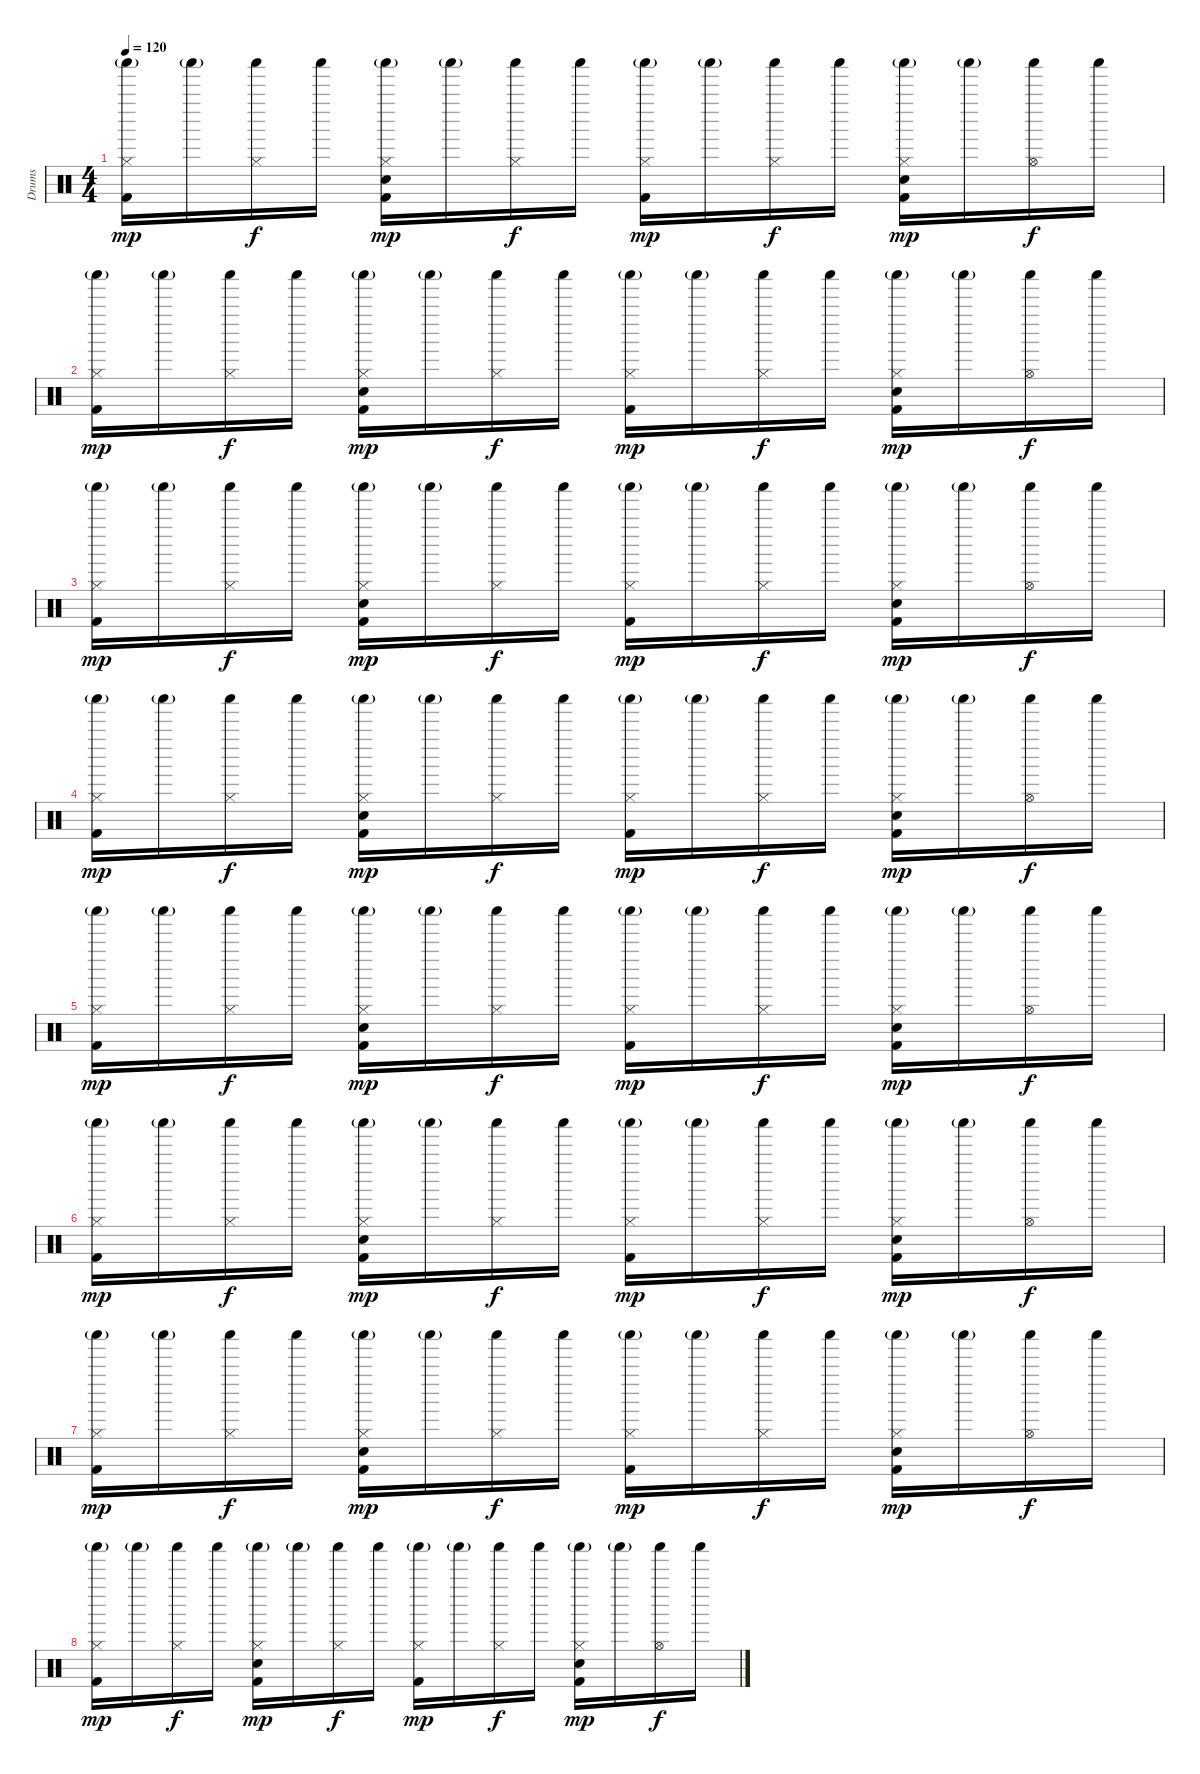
\track ("Drums" "Drums") {instrument percussion}
\staff {score}
\articulation defaults
\ts (4 4)
\tempo 120
\clef neutral
\ks c
("Hi-Hat (closed)" "Shaker (hit)"{g} "Kick (hit) 2").16{dy mp} "Shaker (hit)"{g}.16 ("Hi-Hat (closed)" "Shaker (hit)").16{dy f} "Shaker (hit)".16 ("Hi-Hat (closed)" "Shaker (hit)"{g} "Electric Snare (hit)" "Kick (hit) 2").16{dy mp} "Shaker (hit)"{g}.16 ("Hi-Hat (closed)" "Shaker (hit)").16{dy f} "Shaker (hit)".16 ("Hi-Hat (closed)" "Shaker (hit)"{g} "Kick (hit) 2").16{dy mp} "Shaker (hit)"{g}.16 ("Hi-Hat (closed)" "Shaker (hit)").16{dy f} "Shaker (hit)".16 ("Hi-Hat (closed)" "Shaker (hit)"{g} "Electric Snare (hit)" "Kick (hit) 2").16{dy mp} "Shaker (hit)"{g}.16 ("Hi-Hat (open)" "Shaker (hit)").16{dy f} "Shaker (hit)".16 |
("Hi-Hat (closed)" "Shaker (hit)"{g} "Kick (hit) 2").16{dy mp} "Shaker (hit)"{g}.16 ("Hi-Hat (closed)" "Shaker (hit)").16{dy f} "Shaker (hit)".16 ("Hi-Hat (closed)" "Shaker (hit)"{g} "Electric Snare (hit)" "Kick (hit) 2").16{dy mp} "Shaker (hit)"{g}.16 ("Hi-Hat (closed)" "Shaker (hit)").16{dy f} "Shaker (hit)".16 ("Hi-Hat (closed)" "Shaker (hit)"{g} "Kick (hit) 2").16{dy mp} "Shaker (hit)"{g}.16 ("Hi-Hat (closed)" "Shaker (hit)").16{dy f} "Shaker (hit)".16 ("Hi-Hat (closed)" "Shaker (hit)"{g} "Electric Snare (hit)" "Kick (hit) 2").16{dy mp} "Shaker (hit)"{g}.16 ("Hi-Hat (open)" "Shaker (hit)").16{dy f} "Shaker (hit)".16 |
("Hi-Hat (closed)" "Shaker (hit)"{g} "Kick (hit) 2").16{dy mp} "Shaker (hit)"{g}.16 ("Hi-Hat (closed)" "Shaker (hit)").16{dy f} "Shaker (hit)".16 ("Hi-Hat (closed)" "Shaker (hit)"{g} "Electric Snare (hit)" "Kick (hit) 2").16{dy mp} "Shaker (hit)"{g}.16 ("Hi-Hat (closed)" "Shaker (hit)").16{dy f} "Shaker (hit)".16 ("Hi-Hat (closed)" "Shaker (hit)"{g} "Kick (hit) 2").16{dy mp} "Shaker (hit)"{g}.16 ("Hi-Hat (closed)" "Shaker (hit)").16{dy f} "Shaker (hit)".16 ("Hi-Hat (closed)" "Shaker (hit)"{g} "Electric Snare (hit)" "Kick (hit) 2").16{dy mp} "Shaker (hit)"{g}.16 ("Hi-Hat (open)" "Shaker (hit)").16{dy f} "Shaker (hit)".16 |
("Hi-Hat (closed)" "Shaker (hit)"{g} "Kick (hit) 2").16{dy mp} "Shaker (hit)"{g}.16 ("Hi-Hat (closed)" "Shaker (hit)").16{dy f} "Shaker (hit)".16 ("Hi-Hat (closed)" "Shaker (hit)"{g} "Electric Snare (hit)" "Kick (hit) 2").16{dy mp} "Shaker (hit)"{g}.16 ("Hi-Hat (closed)" "Shaker (hit)").16{dy f} "Shaker (hit)".16 ("Hi-Hat (closed)" "Shaker (hit)"{g} "Kick (hit) 2").16{dy mp} "Shaker (hit)"{g}.16 ("Hi-Hat (closed)" "Shaker (hit)").16{dy f} "Shaker (hit)".16 ("Hi-Hat (closed)" "Shaker (hit)"{g} "Electric Snare (hit)" "Kick (hit) 2").16{dy mp} "Shaker (hit)"{g}.16 ("Hi-Hat (open)" "Shaker (hit)").16{dy f} "Shaker (hit)".16 |
("Hi-Hat (closed)" "Shaker (hit)"{g} "Kick (hit) 2").16{dy mp} "Shaker (hit)"{g}.16 ("Hi-Hat (closed)" "Shaker (hit)").16{dy f} "Shaker (hit)".16 ("Hi-Hat (closed)" "Shaker (hit)"{g} "Electric Snare (hit)" "Kick (hit) 2").16{dy mp} "Shaker (hit)"{g}.16 ("Hi-Hat (closed)" "Shaker (hit)").16{dy f} "Shaker (hit)".16 ("Hi-Hat (closed)" "Shaker (hit)"{g} "Kick (hit) 2").16{dy mp} "Shaker (hit)"{g}.16 ("Hi-Hat (closed)" "Shaker (hit)").16{dy f} "Shaker (hit)".16 ("Hi-Hat (closed)" "Shaker (hit)"{g} "Electric Snare (hit)" "Kick (hit) 2").16{dy mp} "Shaker (hit)"{g}.16 ("Hi-Hat (open)" "Shaker (hit)").16{dy f} "Shaker (hit)".16 |
("Hi-Hat (closed)" "Shaker (hit)"{g} "Kick (hit) 2").16{dy mp} "Shaker (hit)"{g}.16 ("Hi-Hat (closed)" "Shaker (hit)").16{dy f} "Shaker (hit)".16 ("Hi-Hat (closed)" "Shaker (hit)"{g} "Electric Snare (hit)" "Kick (hit) 2").16{dy mp} "Shaker (hit)"{g}.16 ("Hi-Hat (closed)" "Shaker (hit)").16{dy f} "Shaker (hit)".16 ("Hi-Hat (closed)" "Shaker (hit)"{g} "Kick (hit) 2").16{dy mp} "Shaker (hit)"{g}.16 ("Hi-Hat (closed)" "Shaker (hit)").16{dy f} "Shaker (hit)".16 ("Hi-Hat (closed)" "Shaker (hit)"{g} "Electric Snare (hit)" "Kick (hit) 2").16{dy mp} "Shaker (hit)"{g}.16 ("Hi-Hat (open)" "Shaker (hit)").16{dy f} "Shaker (hit)".16 |
("Hi-Hat (closed)" "Shaker (hit)"{g} "Kick (hit) 2").16{dy mp} "Shaker (hit)"{g}.16 ("Hi-Hat (closed)" "Shaker (hit)").16{dy f} "Shaker (hit)".16 ("Hi-Hat (closed)" "Shaker (hit)"{g} "Electric Snare (hit)" "Kick (hit) 2").16{dy mp} "Shaker (hit)"{g}.16 ("Hi-Hat (closed)" "Shaker (hit)").16{dy f} "Shaker (hit)".16 ("Hi-Hat (closed)" "Shaker (hit)"{g} "Kick (hit) 2").16{dy mp} "Shaker (hit)"{g}.16 ("Hi-Hat (closed)" "Shaker (hit)").16{dy f} "Shaker (hit)".16 ("Hi-Hat (closed)" "Shaker (hit)"{g} "Electric Snare (hit)" "Kick (hit) 2").16{dy mp} "Shaker (hit)"{g}.16 ("Hi-Hat (open)" "Shaker (hit)").16{dy f} "Shaker (hit)".16 |
("Hi-Hat (closed)" "Shaker (hit)"{g} "Kick (hit) 2").16{dy mp} "Shaker (hit)"{g}.16 ("Hi-Hat (closed)" "Shaker (hit)").16{dy f} "Shaker (hit)".16 ("Hi-Hat (closed)" "Shaker (hit)"{g} "Electric Snare (hit)" "Kick (hit) 2").16{dy mp} "Shaker (hit)"{g}.16 ("Hi-Hat (closed)" "Shaker (hit)").16{dy f} "Shaker (hit)".16 ("Hi-Hat (closed)" "Shaker (hit)"{g} "Kick (hit) 2").16{dy mp} "Shaker (hit)"{g}.16 ("Hi-Hat (closed)" "Shaker (hit)").16{dy f} "Shaker (hit)".16 ("Hi-Hat (closed)" "Shaker (hit)"{g} "Electric Snare (hit)" "Kick (hit) 2").16{dy mp} "Shaker (hit)"{g}.16 ("Hi-Hat (open)" "Shaker (hit)").16{dy f} "Shaker (hit)".16
